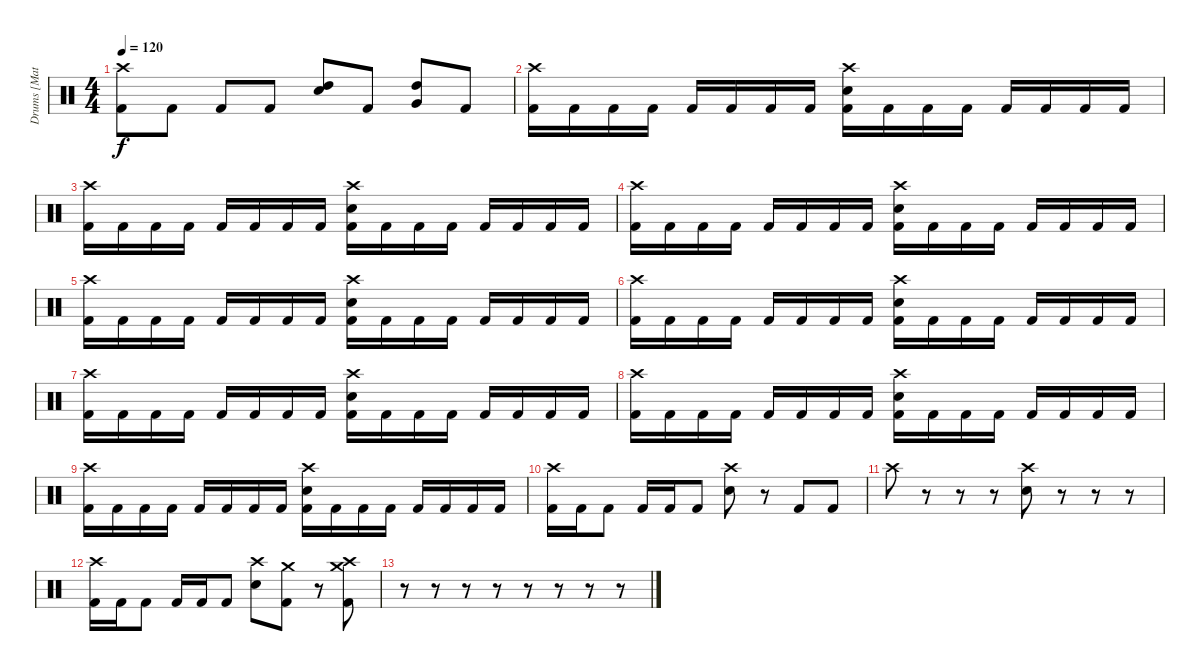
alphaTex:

\track ("Drums [Matt]" "Drums [Mat") {instrument percussion}
\staff {score}
\articulation defaults
\ts (4 4)
\tempo 120
\clef neutral
\ks c
("Crash high (hit)" "Kick (hit) 2").8{dy f} "Kick (hit) 2".8 "Kick (hit) 2".8 "Kick (hit) 2".8 ("High Tom (hit)" "Electric Snare (hit)").8 "Kick (hit) 2".8 ("Very Low Tom (hit)" "High Tom (hit)").8 "Kick (hit) 2".8 |
("Crash high (hit)" "Kick (hit) 2").16 "Kick (hit) 2".16 "Kick (hit) 2".16 "Kick (hit) 2".16 "Kick (hit) 2".16 "Kick (hit) 2".16 "Kick (hit) 2".16 "Kick (hit) 2".16 ("Crash high (hit)" "Electric Snare (hit)" "Kick (hit) 2").16 "Kick (hit) 2".16 "Kick (hit) 2".16 "Kick (hit) 2".16 "Kick (hit) 2".16 "Kick (hit) 2".16 "Kick (hit) 2".16 "Kick (hit) 2".16 |
("Crash high (hit)" "Kick (hit) 2").16 "Kick (hit) 2".16 "Kick (hit) 2".16 "Kick (hit) 2".16 "Kick (hit) 2".16 "Kick (hit) 2".16 "Kick (hit) 2".16 "Kick (hit) 2".16 ("Crash high (hit)" "Electric Snare (hit)" "Kick (hit) 2").16 "Kick (hit) 2".16 "Kick (hit) 2".16 "Kick (hit) 2".16 "Kick (hit) 2".16 "Kick (hit) 2".16 "Kick (hit) 2".16 "Kick (hit) 2".16 |
("Crash high (hit)" "Kick (hit) 2").16 "Kick (hit) 2".16 "Kick (hit) 2".16 "Kick (hit) 2".16 "Kick (hit) 2".16 "Kick (hit) 2".16 "Kick (hit) 2".16 "Kick (hit) 2".16 ("Crash high (hit)" "Electric Snare (hit)" "Kick (hit) 2").16 "Kick (hit) 2".16 "Kick (hit) 2".16 "Kick (hit) 2".16 "Kick (hit) 2".16 "Kick (hit) 2".16 "Kick (hit) 2".16 "Kick (hit) 2".16 |
("Crash high (hit)" "Kick (hit) 2").16 "Kick (hit) 2".16 "Kick (hit) 2".16 "Kick (hit) 2".16 "Kick (hit) 2".16 "Kick (hit) 2".16 "Kick (hit) 2".16 "Kick (hit) 2".16 ("Crash high (hit)" "Electric Snare (hit)" "Kick (hit) 2").16 "Kick (hit) 2".16 "Kick (hit) 2".16 "Kick (hit) 2".16 "Kick (hit) 2".16 "Kick (hit) 2".16 "Kick (hit) 2".16 "Kick (hit) 2".16 |
("Crash high (hit)" "Kick (hit) 2").16 "Kick (hit) 2".16 "Kick (hit) 2".16 "Kick (hit) 2".16 "Kick (hit) 2".16 "Kick (hit) 2".16 "Kick (hit) 2".16 "Kick (hit) 2".16 ("Crash high (hit)" "Electric Snare (hit)" "Kick (hit) 2").16 "Kick (hit) 2".16 "Kick (hit) 2".16 "Kick (hit) 2".16 "Kick (hit) 2".16 "Kick (hit) 2".16 "Kick (hit) 2".16 "Kick (hit) 2".16 |
("Crash high (hit)" "Kick (hit) 2").16 "Kick (hit) 2".16 "Kick (hit) 2".16 "Kick (hit) 2".16 "Kick (hit) 2".16 "Kick (hit) 2".16 "Kick (hit) 2".16 "Kick (hit) 2".16 ("Crash high (hit)" "Electric Snare (hit)" "Kick (hit) 2").16 "Kick (hit) 2".16 "Kick (hit) 2".16 "Kick (hit) 2".16 "Kick (hit) 2".16 "Kick (hit) 2".16 "Kick (hit) 2".16 "Kick (hit) 2".16 |
("Crash high (hit)" "Kick (hit) 2").16 "Kick (hit) 2".16 "Kick (hit) 2".16 "Kick (hit) 2".16 "Kick (hit) 2".16 "Kick (hit) 2".16 "Kick (hit) 2".16 "Kick (hit) 2".16 ("Crash high (hit)" "Electric Snare (hit)" "Kick (hit) 2").16 "Kick (hit) 2".16 "Kick (hit) 2".16 "Kick (hit) 2".16 "Kick (hit) 2".16 "Kick (hit) 2".16 "Kick (hit) 2".16 "Kick (hit) 2".16 |
("Crash high (hit)" "Kick (hit) 2").16 "Kick (hit) 2".16 "Kick (hit) 2".16 "Kick (hit) 2".16 "Kick (hit) 2".16 "Kick (hit) 2".16 "Kick (hit) 2".16 "Kick (hit) 2".16 ("Crash high (hit)" "Electric Snare (hit)" "Kick (hit) 2").16 "Kick (hit) 2".16 "Kick (hit) 2".16 "Kick (hit) 2".16 "Kick (hit) 2".16 "Kick (hit) 2".16 "Kick (hit) 2".16 "Kick (hit) 2".16 |
("Crash high (hit)" "Kick (hit) 2").16 "Kick (hit) 2".16 "Kick (hit) 2".8 "Kick (hit) 2".16 "Kick (hit) 2".16 "Kick (hit) 2".8 ("Crash high (hit)" "Electric Snare (hit)").8 r.8 "Kick (hit) 2".8 "Kick (hit) 2".8 |
"Crash high (hit)".8 r.8 r.8 r.8 ("Crash high (hit)" "Electric Snare (hit)").8 r.8 r.8 r.8 |
("Crash high (hit)" "Kick (hit) 2").16 "Kick (hit) 2".16 "Kick (hit) 2".8 "Kick (hit) 2".16 "Kick (hit) 2".16 "Kick (hit) 2".8 ("Crash high (hit)" "Electric Snare (hit)").8 ("Crash medium (hit)" "Kick (hit) 2").8 r.8 ("Crash high (hit)" "Crash medium (hit)" "Kick (hit) 2").8 |
r.8 r.8 r.8 r.8 r.8 r.8 r.8 r.8
